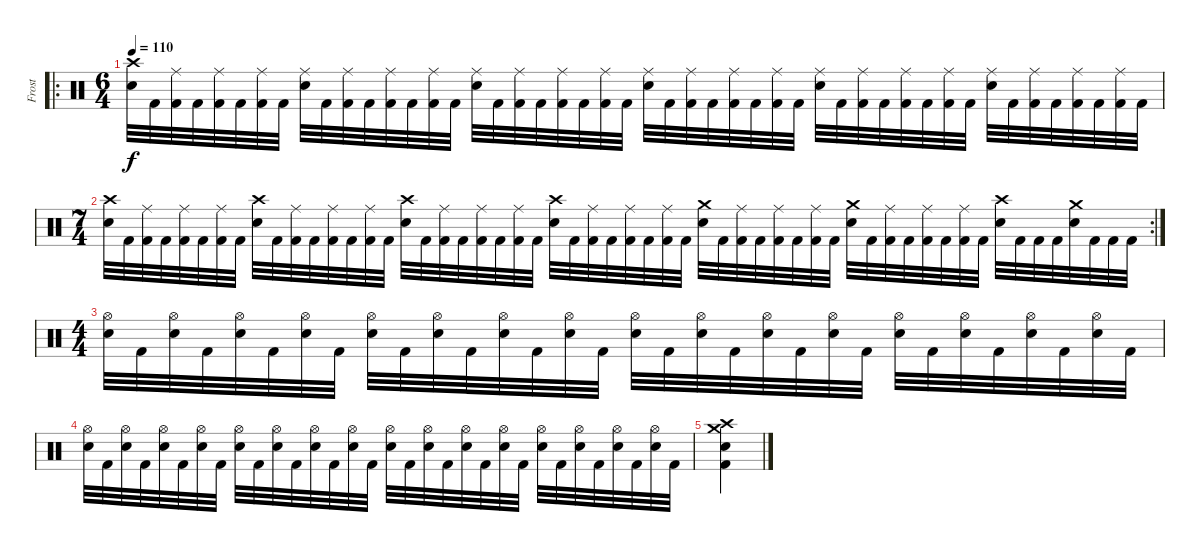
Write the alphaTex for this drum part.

\track ("Frost" "Frost") {instrument percussion}
\staff {score}
\articulation defaults
\ro
\ts (6 4)
\tempo 110
\clef neutral
\ks c
("Crash high (hit)" "Snare (hit) 2").32{dy f} "Kick (hit) 2".32 ("Ride (middle)" "Kick (hit) 2").32 "Kick (hit) 2".32 ("Ride (middle)" "Kick (hit) 2").32 "Kick (hit) 2".32 ("Ride (middle)" "Kick (hit) 2").32 "Kick (hit) 2".32 ("Ride (middle)" "Snare (hit) 2").32 "Kick (hit) 2".32 ("Ride (middle)" "Kick (hit) 2").32 "Kick (hit) 2".32 ("Ride (middle)" "Kick (hit) 2").32 "Kick (hit) 2".32 ("Ride (middle)" "Kick (hit) 2").32 "Kick (hit) 2".32 ("Ride (middle)" "Snare (hit) 2").32 "Kick (hit) 2".32 ("Ride (middle)" "Kick (hit) 2").32 "Kick (hit) 2".32 ("Ride (middle)" "Kick (hit) 2").32 "Kick (hit) 2".32 ("Ride (middle)" "Kick (hit) 2").32 "Kick (hit) 2".32 ("Ride (middle)" "Snare (hit) 2").32 "Kick (hit) 2".32 ("Ride (middle)" "Kick (hit) 2").32 "Kick (hit) 2".32 ("Ride (middle)" "Kick (hit) 2").32 "Kick (hit) 2".32 ("Ride (middle)" "Kick (hit) 2").32 "Kick (hit) 2".32 ("Ride (middle)" "Snare (hit) 2").32 "Kick (hit) 2".32 ("Ride (middle)" "Kick (hit) 2").32 "Kick (hit) 2".32 ("Ride (middle)" "Kick (hit) 2").32 "Kick (hit) 2".32 ("Ride (middle)" "Kick (hit) 2").32 "Kick (hit) 2".32 ("Ride (middle)" "Snare (hit) 2").32 "Kick (hit) 2".32 ("Ride (middle)" "Kick (hit) 2").32 "Kick (hit) 2".32 ("Ride (middle)" "Kick (hit) 2").32 "Kick (hit) 2".32 ("Ride (middle)" "Kick (hit) 2").32 "Kick (hit) 2".32 |
\rc 2
\ts (7 4)
("Crash high (hit)" "Snare (hit) 2").32 "Kick (hit) 2".32 ("Ride (middle)" "Kick (hit) 2").32 "Kick (hit) 2".32 ("Ride (middle)" "Kick (hit) 2").32 "Kick (hit) 2".32 ("Ride (middle)" "Kick (hit) 2").32 "Kick (hit) 2".32 ("Crash high (hit)" "Snare (hit) 2").32 "Kick (hit) 2".32 ("Ride (middle)" "Kick (hit) 2").32 "Kick (hit) 2".32 ("Ride (middle)" "Kick (hit) 2").32 "Kick (hit) 2".32 ("Ride (middle)" "Kick (hit) 2").32 "Kick (hit) 2".32 ("Crash high (hit)" "Snare (hit) 2").32 "Kick (hit) 2".32 ("Ride (middle)" "Kick (hit) 2").32 "Kick (hit) 2".32 ("Ride (middle)" "Kick (hit) 2").32 "Kick (hit) 2".32 ("Ride (middle)" "Kick (hit) 2").32 "Kick (hit) 2".32 ("Crash high (hit)" "Snare (hit) 2").32 "Kick (hit) 2".32 ("Ride (middle)" "Kick (hit) 2").32 "Kick (hit) 2".32 ("Ride (middle)" "Kick (hit) 2").32 "Kick (hit) 2".32 ("Ride (middle)" "Kick (hit) 2").32 "Kick (hit) 2".32 ("Crash medium (hit)" "Snare (hit) 2").32 "Kick (hit) 2".32 ("Ride (middle)" "Kick (hit) 2").32 "Kick (hit) 2".32 ("Ride (middle)" "Kick (hit) 2").32 "Kick (hit) 2".32 ("Ride (middle)" "Kick (hit) 2").32 "Kick (hit) 2".32 ("Crash medium (hit)" "Snare (hit) 2").32 "Kick (hit) 2".32 ("Ride (middle)" "Kick (hit) 2").32 "Kick (hit) 2".32 ("Ride (middle)" "Kick (hit) 2").32 "Kick (hit) 2".32 ("Ride (middle)" "Kick (hit) 2").32 "Kick (hit) 2".32 ("Crash high (hit)" "Snare (hit) 2").32 "Kick (hit) 2".32 "Kick (hit) 2".32 "Kick (hit) 2".32 ("Crash medium (hit)" "Snare (hit) 2").32 "Kick (hit) 2".32 "Kick (hit) 2".32 "Kick (hit) 2".32 |
\ts (4 4)
("Hi-Hat (open)" "Snare (hit) 2").32 "Kick (hit) 2".32 ("Hi-Hat (open)" "Snare (hit) 2").32 "Kick (hit) 2".32 ("Hi-Hat (open)" "Snare (hit) 2").32 "Kick (hit) 2".32 ("Hi-Hat (open)" "Snare (hit) 2").32 "Kick (hit) 2".32 ("Hi-Hat (open)" "Snare (hit) 2").32 "Kick (hit) 2".32 ("Hi-Hat (open)" "Snare (hit) 2").32 "Kick (hit) 2".32 ("Hi-Hat (open)" "Snare (hit) 2").32 "Kick (hit) 2".32 ("Hi-Hat (open)" "Snare (hit) 2").32 "Kick (hit) 2".32 ("Hi-Hat (open)" "Snare (hit) 2").32 "Kick (hit) 2".32 ("Hi-Hat (open)" "Snare (hit) 2").32 "Kick (hit) 2".32 ("Hi-Hat (open)" "Snare (hit) 2").32 "Kick (hit) 2".32 ("Hi-Hat (open)" "Snare (hit) 2").32 "Kick (hit) 2".32 ("Hi-Hat (open)" "Snare (hit) 2").32 "Kick (hit) 2".32 ("Hi-Hat (open)" "Snare (hit) 2").32 "Kick (hit) 2".32 ("Hi-Hat (open)" "Snare (hit) 2").32 "Kick (hit) 2".32 ("Hi-Hat (open)" "Snare (hit) 2").32 "Kick (hit) 2".32 |
("Hi-Hat (open)" "Snare (hit) 2").32 "Kick (hit) 2".32 ("Hi-Hat (open)" "Snare (hit) 2").32 "Kick (hit) 2".32 ("Hi-Hat (open)" "Snare (hit) 2").32 "Kick (hit) 2".32 ("Hi-Hat (open)" "Snare (hit) 2").32 "Kick (hit) 2".32 ("Hi-Hat (open)" "Snare (hit) 2").32 "Kick (hit) 2".32 ("Hi-Hat (open)" "Snare (hit) 2").32 "Kick (hit) 2".32 ("Hi-Hat (open)" "Snare (hit) 2").32 "Kick (hit) 2".32 ("Hi-Hat (open)" "Snare (hit) 2").32 "Kick (hit) 2".32 ("Hi-Hat (open)" "Snare (hit) 2").32 "Kick (hit) 2".32 ("Hi-Hat (open)" "Snare (hit) 2").32 "Kick (hit) 2".32 ("Hi-Hat (open)" "Snare (hit) 2").32 "Kick (hit) 2".32 ("Hi-Hat (open)" "Snare (hit) 2").32 "Kick (hit) 2".32 ("Hi-Hat (open)" "Snare (hit) 2").32 "Kick (hit) 2".32 ("Hi-Hat (open)" "Snare (hit) 2").32 "Kick (hit) 2".32 ("Hi-Hat (open)" "Snare (hit) 2").32 "Kick (hit) 2".32 ("Hi-Hat (open)" "Snare (hit) 2").32 "Kick (hit) 2".32 |
("Crash high (hit)" "Crash medium (hit)" "Snare (hit) 2" "Kick (hit) 2").4
